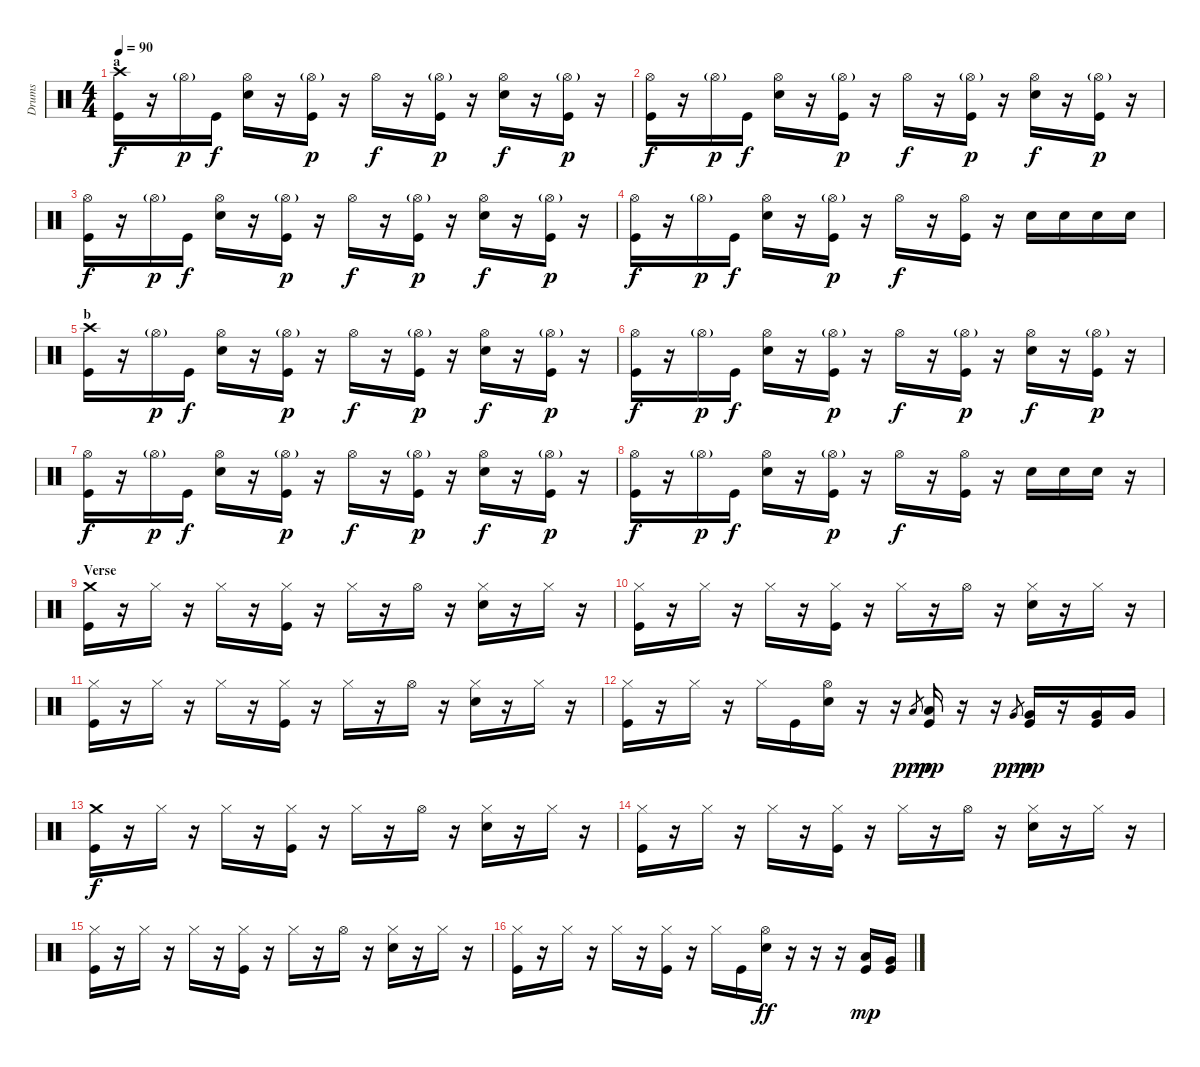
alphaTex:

\track ("Drums" "Drums") {instrument percussion}
\staff {score}
\articulation defaults
\ts (4 4)
\section ("" "a")
\tempo 90
\clef neutral
\ks c
("Crash high (hit)" "Kick (hit)").16{dy f} r.16 "Hi-Hat (open)"{g}.16{dy p} "Kick (hit)".16{dy f} ("Hi-Hat (open)" "Snare (hit) 2").16 r.16 ("Hi-Hat (open)"{g} "Kick (hit)").16{dy p} r.16 "Hi-Hat (open)".16{dy f} r.16 ("Hi-Hat (open)"{g} "Kick (hit)").16{dy p} r.16 ("Hi-Hat (open)" "Snare (hit) 2").16{dy f} r.16 ("Hi-Hat (open)"{g} "Kick (hit)").16{dy p} r.16 |
("Hi-Hat (open)" "Kick (hit)").16{dy f} r.16 "Hi-Hat (open)"{g}.16{dy p} "Kick (hit)".16{dy f} ("Hi-Hat (open)" "Snare (hit) 2").16 r.16 ("Hi-Hat (open)"{g} "Kick (hit)").16{dy p} r.16 "Hi-Hat (open)".16{dy f} r.16 ("Hi-Hat (open)"{g} "Kick (hit)").16{dy p} r.16 ("Hi-Hat (open)" "Snare (hit) 2").16{dy f} r.16 ("Hi-Hat (open)"{g} "Kick (hit)").16{dy p} r.16 |
("Hi-Hat (open)" "Kick (hit)").16{dy f} r.16 "Hi-Hat (open)"{g}.16{dy p} "Kick (hit)".16{dy f} ("Hi-Hat (open)" "Snare (hit) 2").16 r.16 ("Hi-Hat (open)"{g} "Kick (hit)").16{dy p} r.16 "Hi-Hat (open)".16{dy f} r.16 ("Hi-Hat (open)"{g} "Kick (hit)").16{dy p} r.16 ("Hi-Hat (open)" "Snare (hit) 2").16{dy f} r.16 ("Hi-Hat (open)"{g} "Kick (hit)").16{dy p} r.16 |
("Hi-Hat (open)" "Kick (hit)").16{dy f} r.16 "Hi-Hat (open)"{g}.16{dy p} "Kick (hit)".16{dy f} ("Hi-Hat (open)" "Snare (hit) 2").16 r.16 ("Hi-Hat (open)"{g} "Kick (hit)").16{dy p} r.16 "Hi-Hat (open)".16{dy f} r.16 ("Hi-Hat (open)" "Kick (hit)").16 r.16 "Snare (hit) 2".16 "Snare (hit) 2".16 "Snare (hit) 2".16 "Snare (hit) 2".16 |
\section ("" "b")
("Crash high (hit)" "Kick (hit)").16 r.16 "Hi-Hat (open)"{g}.16{dy p} "Kick (hit)".16{dy f} ("Hi-Hat (open)" "Snare (hit) 2").16 r.16 ("Hi-Hat (open)"{g} "Kick (hit)").16{dy p} r.16 "Hi-Hat (open)".16{dy f} r.16 ("Hi-Hat (open)"{g} "Kick (hit)").16{dy p} r.16 ("Hi-Hat (open)" "Snare (hit) 2").16{dy f} r.16 ("Hi-Hat (open)"{g} "Kick (hit)").16{dy p} r.16 |
("Hi-Hat (open)" "Kick (hit)").16{dy f} r.16 "Hi-Hat (open)"{g}.16{dy p} "Kick (hit)".16{dy f} ("Hi-Hat (open)" "Snare (hit) 2").16 r.16 ("Hi-Hat (open)"{g} "Kick (hit)").16{dy p} r.16 "Hi-Hat (open)".16{dy f} r.16 ("Hi-Hat (open)"{g} "Kick (hit)").16{dy p} r.16 ("Hi-Hat (open)" "Snare (hit) 2").16{dy f} r.16 ("Hi-Hat (open)"{g} "Kick (hit)").16{dy p} r.16 |
("Hi-Hat (open)" "Kick (hit)").16{dy f} r.16 "Hi-Hat (open)"{g}.16{dy p} "Kick (hit)".16{dy f} ("Hi-Hat (open)" "Snare (hit) 2").16 r.16 ("Hi-Hat (open)"{g} "Kick (hit)").16{dy p} r.16 "Hi-Hat (open)".16{dy f} r.16 ("Hi-Hat (open)"{g} "Kick (hit)").16{dy p} r.16 ("Hi-Hat (open)" "Snare (hit) 2").16{dy f} r.16 ("Hi-Hat (open)"{g} "Kick (hit)").16{dy p} r.16 |
("Hi-Hat (open)" "Kick (hit)").16{dy f} r.16 "Hi-Hat (open)"{g}.16{dy p} "Kick (hit)".16{dy f} ("Hi-Hat (open)" "Snare (hit) 2").16 r.16 ("Hi-Hat (open)"{g} "Kick (hit)").16{dy p} r.16 "Hi-Hat (open)".16{dy f} r.16 ("Hi-Hat (open)" "Kick (hit)").16 r.16 "Snare (hit) 2".16 "Snare (hit) 2".16 "Snare (hit) 2".16 r.16 |
\section ("" "Verse")
("Crash medium (hit)" "Kick (hit)").16 r.16 "Hi-Hat (closed)".16 r.16 "Hi-Hat (closed)".16 r.16 ("Hi-Hat (closed)" "Kick (hit)").16 r.16 "Hi-Hat (closed)".16 r.16 "Hi-Hat (open)".16 r.16 ("Hi-Hat (closed)" "Snare (hit) 2").16 r.16 "Hi-Hat (closed)".16 r.16 |
("Hi-Hat (closed)" "Kick (hit)").16 r.16 "Hi-Hat (closed)".16 r.16 "Hi-Hat (closed)".16 r.16 ("Hi-Hat (closed)" "Kick (hit)").16 r.16 "Hi-Hat (closed)".16 r.16 "Hi-Hat (open)".16 r.16 ("Hi-Hat (closed)" "Snare (hit) 2").16 r.16 "Hi-Hat (closed)".16 r.16 |
("Hi-Hat (closed)" "Kick (hit)").16 r.16 "Hi-Hat (closed)".16 r.16 "Hi-Hat (closed)".16 r.16 ("Hi-Hat (closed)" "Kick (hit)").16 r.16 "Hi-Hat (closed)".16 r.16 "Hi-Hat (open)".16 r.16 ("Hi-Hat (closed)" "Snare (hit) 2").16 r.16 "Hi-Hat (closed)".16 r.16 |
("Hi-Hat (closed)" "Kick (hit)").16 r.16 "Hi-Hat (closed)".16 r.16 "Hi-Hat (closed)".16 "Kick (hit)".16 ("Hi-Hat (open)" "Snare (hit) 2").16 r.16 r.16 "Low Tom (hit)".8{gr dy ppp} ("Low Tom (hit)" "Kick (hit)").16{dy mp} r.16 r.16 "Very Low Tom (hit)".8{gr dy ppp} ("Very Low Tom (hit)" "Kick (hit)").16{dy mp} r.16 ("Very Low Tom (hit)" "Kick (hit)").16 "Very Low Tom (hit)".16 |
("Crash medium (hit)" "Kick (hit)").16{dy f} r.16 "Hi-Hat (closed)".16 r.16 "Hi-Hat (closed)".16 r.16 ("Hi-Hat (closed)" "Kick (hit)").16 r.16 "Hi-Hat (closed)".16 r.16 "Hi-Hat (open)".16 r.16 ("Hi-Hat (closed)" "Snare (hit) 2").16 r.16 "Hi-Hat (closed)".16 r.16 |
("Hi-Hat (closed)" "Kick (hit)").16 r.16 "Hi-Hat (closed)".16 r.16 "Hi-Hat (closed)".16 r.16 ("Hi-Hat (closed)" "Kick (hit)").16 r.16 "Hi-Hat (closed)".16 r.16 "Hi-Hat (open)".16 r.16 ("Hi-Hat (closed)" "Snare (hit) 2").16 r.16 "Hi-Hat (closed)".16 r.16 |
("Hi-Hat (closed)" "Kick (hit)").16 r.16 "Hi-Hat (closed)".16 r.16 "Hi-Hat (closed)".16 r.16 ("Hi-Hat (closed)" "Kick (hit)").16 r.16 "Hi-Hat (closed)".16 r.16 "Hi-Hat (open)".16 r.16 ("Hi-Hat (closed)" "Snare (hit) 2").16 r.16 "Hi-Hat (closed)".16 r.16 |
("Hi-Hat (closed)" "Kick (hit)").16 r.16 "Hi-Hat (closed)".16 r.16 "Hi-Hat (closed)".16 r.16 ("Hi-Hat (closed)" "Kick (hit)").16 r.16 "Hi-Hat (closed)".16 "Kick (hit)".16 ("Hi-Hat (open)" "Snare (hit) 2").16{dy ff} r.16 r.16 r.16 ("Low Tom (hit)" "Kick (hit)").16{dy mp} ("Very Low Tom (hit)" "Kick (hit)").16
